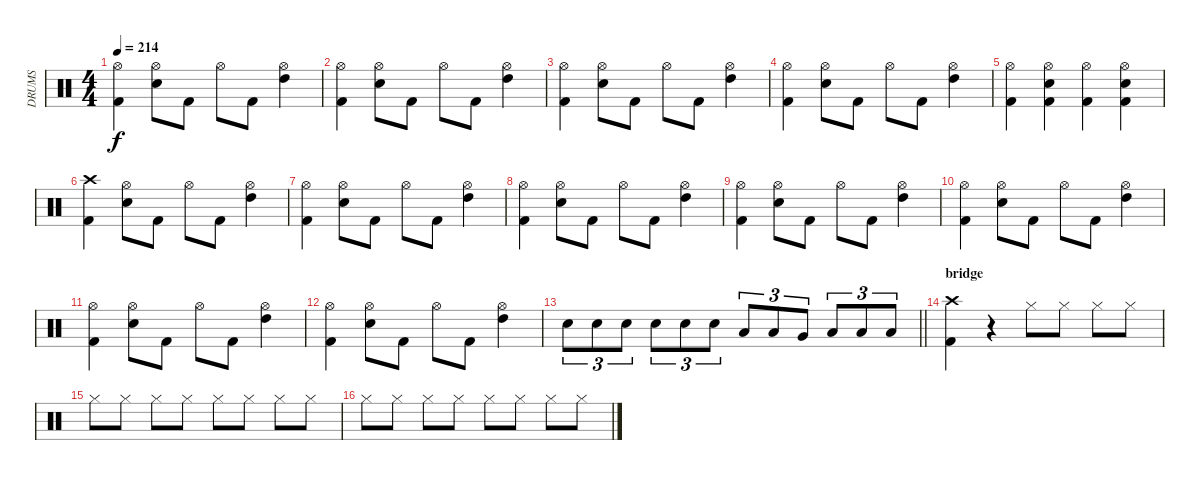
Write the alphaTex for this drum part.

\track ("DRUMS" "DRUMS") {instrument percussion}
\staff {score}
\articulation defaults
\ts (4 4)
\tempo 214
\clef neutral
\ks c
("Hi-Hat (open)" "Kick (hit) 2").4{dy f} ("Hi-Hat (open)" "Snare (hit) 2").8 "Kick (hit) 2".8 "Hi-Hat (open)".8 "Kick (hit) 2".8 ("Hi-Hat (open)" "High Tom (hit)").4 |
("Hi-Hat (open)" "Kick (hit) 2").4 ("Hi-Hat (open)" "Snare (hit) 2").8 "Kick (hit) 2".8 "Hi-Hat (open)".8 "Kick (hit) 2".8 ("Hi-Hat (open)" "High Tom (hit)").4 |
("Hi-Hat (open)" "Kick (hit) 2").4 ("Hi-Hat (open)" "Snare (hit) 2").8 "Kick (hit) 2".8 "Hi-Hat (open)".8 "Kick (hit) 2".8 ("Hi-Hat (open)" "High Tom (hit)").4 |
("Hi-Hat (open)" "Kick (hit) 2").4 ("Hi-Hat (open)" "Snare (hit) 2").8 "Kick (hit) 2".8 "Hi-Hat (open)".8 "Kick (hit) 2".8 ("Hi-Hat (open)" "High Tom (hit)").4 |
("Hi-Hat (open)" "Kick (hit) 2").4 ("Hi-Hat (open)" "Snare (hit) 2" "Kick (hit) 2").4 ("Hi-Hat (open)" "Kick (hit) 2").4 ("Hi-Hat (open)" "Snare (hit) 2" "Kick (hit) 2").4 |
("Crash high (hit)" "Kick (hit) 2").4 ("Hi-Hat (open)" "Snare (hit) 2").8 "Kick (hit) 2".8 "Hi-Hat (open)".8 "Kick (hit) 2".8 ("Hi-Hat (open)" "High Tom (hit)").4 |
("Hi-Hat (open)" "Kick (hit) 2").4 ("Hi-Hat (open)" "Snare (hit) 2").8 "Kick (hit) 2".8 "Hi-Hat (open)".8 "Kick (hit) 2".8 ("Hi-Hat (open)" "High Tom (hit)").4 |
("Hi-Hat (open)" "Kick (hit) 2").4 ("Hi-Hat (open)" "Snare (hit) 2").8 "Kick (hit) 2".8 "Hi-Hat (open)".8 "Kick (hit) 2".8 ("Hi-Hat (open)" "High Tom (hit)").4 |
("Hi-Hat (open)" "Kick (hit) 2").4 ("Hi-Hat (open)" "Snare (hit) 2").8 "Kick (hit) 2".8 "Hi-Hat (open)".8 "Kick (hit) 2".8 ("Hi-Hat (open)" "High Tom (hit)").4 |
("Hi-Hat (open)" "Kick (hit) 2").4 ("Hi-Hat (open)" "Snare (hit) 2").8 "Kick (hit) 2".8 "Hi-Hat (open)".8 "Kick (hit) 2".8 ("Hi-Hat (open)" "High Tom (hit)").4 |
("Hi-Hat (open)" "Kick (hit) 2").4 ("Hi-Hat (open)" "Snare (hit) 2").8 "Kick (hit) 2".8 "Hi-Hat (open)".8 "Kick (hit) 2".8 ("Hi-Hat (open)" "High Tom (hit)").4 |
("Hi-Hat (open)" "Kick (hit) 2").4 ("Hi-Hat (open)" "Snare (hit) 2").8 "Kick (hit) 2".8 "Hi-Hat (open)".8 "Kick (hit) 2".8 ("Hi-Hat (open)" "High Tom (hit)").4 |
\barLineRight lightlight "Snare (hit) 2".8{tu (3 2)} "Snare (hit) 2".8{tu (3 2)} "Snare (hit) 2".8{tu (3 2)} "Snare (hit) 2".8{tu (3 2)} "Snare (hit) 2".8{tu (3 2)} "Snare (hit) 2".8{tu (3 2)} "Low Tom (hit)".8{tu (3 2)} "Low Tom (hit)".8{tu (3 2)} "Very Low Tom (hit)".8{tu (3 2)} "Low Floor Tom (hit)".8{tu (3 2)} "Low Floor Tom (hit)".8{tu (3 2)} "Low Floor Tom (hit)".8{tu (3 2)}
|
\section ("" "bridge")
("Crash high (hit)" "Kick (hit) 2").4 r.4 "Hi-Hat (closed)".8 "Hi-Hat (closed)".8 "Hi-Hat (closed)".8 "Hi-Hat (closed)".8 |
"Hi-Hat (closed)".8 "Hi-Hat (closed)".8 "Hi-Hat (closed)".8 "Hi-Hat (closed)".8 "Hi-Hat (closed)".8 "Hi-Hat (closed)".8 "Hi-Hat (closed)".8 "Hi-Hat (closed)".8 |
"Hi-Hat (closed)".8 "Hi-Hat (closed)".8 "Hi-Hat (closed)".8 "Hi-Hat (closed)".8 "Hi-Hat (closed)".8 "Hi-Hat (closed)".8 "Hi-Hat (closed)".8 "Hi-Hat (closed)".8
